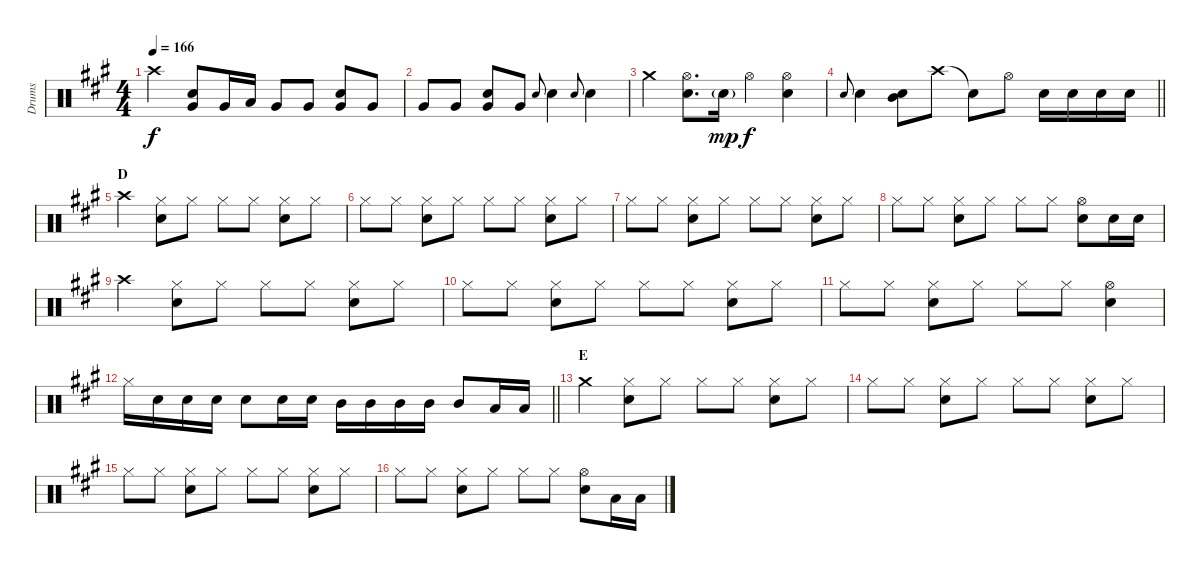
\track ("Drums" "Drums") {instrument percussion}
\staff {score}
\articulation defaults
\ts (4 4)
\tempo 166
\clef neutral
\ks a "Crash high (hit)".4{dy f}
("Snare (hit) 2" "Very Low Tom (hit)").8 "Very Low Tom (hit)".16 "Low Tom (hit)".16 "Very Low Tom (hit)".8 "Very Low Tom (hit)".8 ("Very Low Tom (hit)" "Snare (hit) 2").8 "Very Low Tom (hit)".8 |
"Very Low Tom (hit)".8 "Very Low Tom (hit)".8 ("Very Low Tom (hit)" "Snare (hit) 2").8 "Very Low Tom (hit)".8 "Snare (hit) 2".8{gr onbeat} "Snare (hit) 2".4 "Snare (hit) 2".8{gr onbeat} "Snare (hit) 2".4 |
"Crash medium (hit)".4 ("Hi-Hat (open)" "Snare (hit) 2").8{d} "Snare (hit) 2"{g}.16{dy mp} "Hi-Hat (open)".4{dy f} ("Hi-Hat (open)" "Snare (hit) 2").4 |
\barLineRight lightlight "Snare (hit) 2".8{gr onbeat} "Snare (hit) 2".4
("Snare (hit) 2" "Mid Tom (hit)").8 "Crash high (hit)".8 "Snare (hit)"{t}.8 "Hi-Hat (open)".8 "Snare (hit) 2".16 "Snare (hit) 2".16 "Snare (hit) 2".16 "Snare (hit) 2".16 |
\section ("" "D")
"Crash high (hit)".4 ("Hi-Hat (closed)" "Snare (hit) 2").8 "Hi-Hat (closed)".8 "Hi-Hat (closed)".8 "Hi-Hat (closed)".8 ("Hi-Hat (closed)" "Snare (hit) 2").8 "Hi-Hat (closed)".8 |
"Hi-Hat (closed)".8 "Hi-Hat (closed)".8 ("Hi-Hat (closed)" "Snare (hit) 2").8 "Hi-Hat (closed)".8 "Hi-Hat (closed)".8 "Hi-Hat (closed)".8 ("Hi-Hat (closed)" "Snare (hit) 2").8 "Hi-Hat (closed)".8 |
"Hi-Hat (closed)".8 "Hi-Hat (closed)".8 ("Hi-Hat (closed)" "Snare (hit) 2").8 "Hi-Hat (closed)".8 "Hi-Hat (closed)".8 "Hi-Hat (closed)".8 ("Hi-Hat (closed)" "Snare (hit) 2").8 "Hi-Hat (closed)".8 |
"Hi-Hat (closed)".8 "Hi-Hat (closed)".8 ("Hi-Hat (closed)" "Snare (hit) 2").8 "Hi-Hat (closed)".8 "Hi-Hat (closed)".8 "Hi-Hat (closed)".8 ("Hi-Hat (open)" "Snare (hit) 2").8 "Snare (hit) 2".16 "Snare (hit) 2".16 |
"Crash high (hit)".4 ("Hi-Hat (closed)" "Snare (hit) 2").8 "Hi-Hat (closed)".8 "Hi-Hat (closed)".8 "Hi-Hat (closed)".8 ("Hi-Hat (closed)" "Snare (hit) 2").8 "Hi-Hat (closed)".8 |
"Hi-Hat (closed)".8 "Hi-Hat (closed)".8 ("Hi-Hat (closed)" "Snare (hit) 2").8 "Hi-Hat (closed)".8 "Hi-Hat (closed)".8 "Hi-Hat (closed)".8 ("Hi-Hat (closed)" "Snare (hit) 2").8 "Hi-Hat (closed)".8 |
"Hi-Hat (closed)".8 "Hi-Hat (closed)".8 ("Hi-Hat (closed)" "Snare (hit) 2").8 "Hi-Hat (closed)".8 "Hi-Hat (closed)".8 "Hi-Hat (closed)".8 ("Hi-Hat (open)" "Snare (hit) 2").4 |
\barLineRight lightlight "Hi-Hat (closed)".16 "Snare (hit) 2".16 "Snare (hit) 2".16 "Snare (hit) 2".16 "Snare (hit) 2".8 "Snare (hit) 2".16 "Snare (hit) 2".16 "Mid Tom (hit)".16 "Mid Tom (hit)".16 "Mid Tom (hit)".16 "Mid Tom (hit)".16 "Mid Tom (hit)".8 "Low Tom (hit)".16 "Low Tom (hit)".16
|
\section ("" "E")
"Crash medium (hit)".4 ("Hi-Hat (closed)" "Snare (hit) 2").8 "Hi-Hat (closed)".8 "Hi-Hat (closed)".8 "Hi-Hat (closed)".8 ("Hi-Hat (closed)" "Snare (hit) 2").8 "Hi-Hat (closed)".8 |
"Hi-Hat (closed)".8 "Hi-Hat (closed)".8 ("Hi-Hat (closed)" "Snare (hit) 2").8 "Hi-Hat (closed)".8 "Hi-Hat (closed)".8 "Hi-Hat (closed)".8 ("Hi-Hat (closed)" "Snare (hit) 2").8 "Hi-Hat (closed)".8 |
"Hi-Hat (closed)".8 "Hi-Hat (closed)".8 ("Hi-Hat (closed)" "Snare (hit) 2").8 "Hi-Hat (closed)".8 "Hi-Hat (closed)".8 "Hi-Hat (closed)".8 ("Hi-Hat (closed)" "Snare (hit) 2").8 "Hi-Hat (closed)".8 |
"Hi-Hat (closed)".8 "Hi-Hat (closed)".8 ("Hi-Hat (closed)" "Snare (hit) 2").8 "Hi-Hat (closed)".8 "Hi-Hat (closed)".8 "Hi-Hat (closed)".8 ("Hi-Hat (open)" "Snare (hit) 2").8 "Low Tom (hit)".16 "Low Tom (hit)".16
